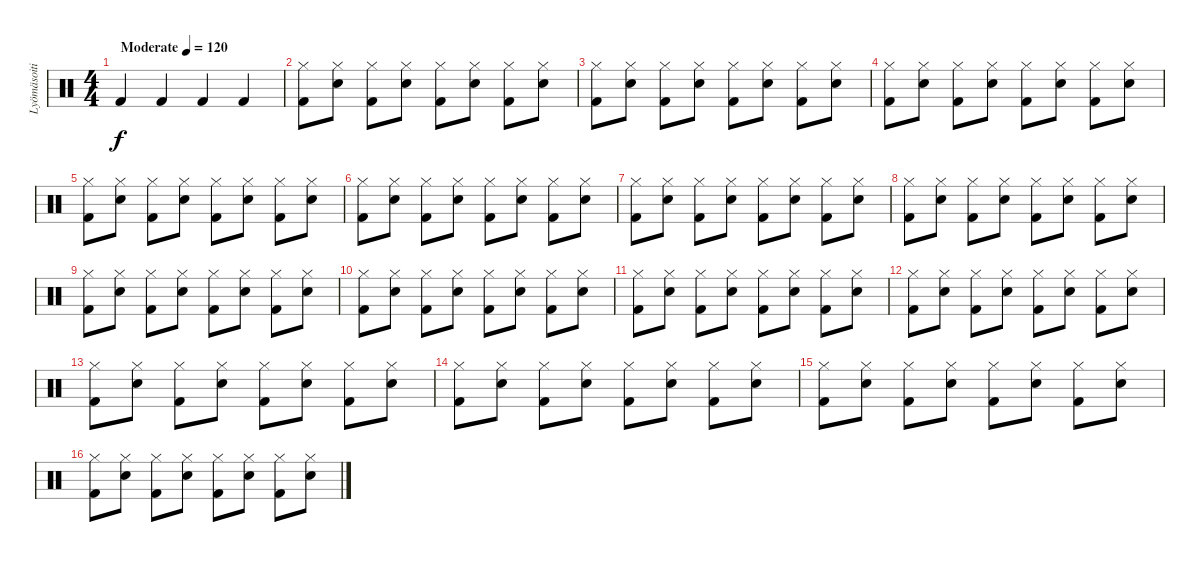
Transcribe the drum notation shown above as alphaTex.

\track ("Lyömäsoitin" "Lyömäsoiti") {instrument percussion}
\staff {score}
\articulation defaults
\ts (4 4)
\tempo (120 "Moderate")
\clef neutral
\ks c "Kick (hit) 2".4{dy f} "Kick (hit) 2".4 "Kick (hit) 2".4 "Kick (hit) 2".4
|
("Hi-Hat (closed)" "Kick (hit) 2").8 ("Hi-Hat (closed)" "Snare (hit) 2").8 ("Hi-Hat (closed)" "Kick (hit) 2").8 ("Hi-Hat (closed)" "Snare (hit) 2").8 ("Hi-Hat (closed)" "Kick (hit) 2").8 ("Hi-Hat (closed)" "Snare (hit) 2").8 ("Hi-Hat (closed)" "Kick (hit) 2").8 ("Hi-Hat (closed)" "Snare (hit) 2").8 |
("Hi-Hat (closed)" "Kick (hit) 2").8 ("Hi-Hat (closed)" "Snare (hit) 2").8 ("Hi-Hat (closed)" "Kick (hit) 2").8 ("Hi-Hat (closed)" "Snare (hit) 2").8 ("Hi-Hat (closed)" "Kick (hit) 2").8 ("Hi-Hat (closed)" "Snare (hit) 2").8 ("Hi-Hat (closed)" "Kick (hit) 2").8 ("Hi-Hat (closed)" "Snare (hit) 2").8 |
("Hi-Hat (closed)" "Kick (hit) 2").8 ("Hi-Hat (closed)" "Snare (hit) 2").8 ("Hi-Hat (closed)" "Kick (hit) 2").8 ("Hi-Hat (closed)" "Snare (hit) 2").8 ("Hi-Hat (closed)" "Kick (hit) 2").8 ("Hi-Hat (closed)" "Snare (hit) 2").8 ("Hi-Hat (closed)" "Kick (hit) 2").8 ("Hi-Hat (closed)" "Snare (hit) 2").8 |
("Hi-Hat (closed)" "Kick (hit) 2").8 ("Hi-Hat (closed)" "Snare (hit) 2").8 ("Hi-Hat (closed)" "Kick (hit) 2").8 ("Hi-Hat (closed)" "Snare (hit) 2").8 ("Hi-Hat (closed)" "Kick (hit) 2").8 ("Hi-Hat (closed)" "Snare (hit) 2").8 ("Hi-Hat (closed)" "Kick (hit) 2").8 ("Hi-Hat (closed)" "Snare (hit) 2").8 |
("Hi-Hat (closed)" "Kick (hit) 2").8 ("Hi-Hat (closed)" "Snare (hit) 2").8 ("Hi-Hat (closed)" "Kick (hit) 2").8 ("Hi-Hat (closed)" "Snare (hit) 2").8 ("Hi-Hat (closed)" "Kick (hit) 2").8 ("Hi-Hat (closed)" "Snare (hit) 2").8 ("Hi-Hat (closed)" "Kick (hit) 2").8 ("Hi-Hat (closed)" "Snare (hit) 2").8 |
("Hi-Hat (closed)" "Kick (hit) 2").8 ("Hi-Hat (closed)" "Snare (hit) 2").8 ("Hi-Hat (closed)" "Kick (hit) 2").8 ("Hi-Hat (closed)" "Snare (hit) 2").8 ("Hi-Hat (closed)" "Kick (hit) 2").8 ("Hi-Hat (closed)" "Snare (hit) 2").8 ("Hi-Hat (closed)" "Kick (hit) 2").8 ("Hi-Hat (closed)" "Snare (hit) 2").8 |
("Hi-Hat (closed)" "Kick (hit) 2").8 ("Hi-Hat (closed)" "Snare (hit) 2").8 ("Hi-Hat (closed)" "Kick (hit) 2").8 ("Hi-Hat (closed)" "Snare (hit) 2").8 ("Hi-Hat (closed)" "Kick (hit) 2").8 ("Hi-Hat (closed)" "Snare (hit) 2").8 ("Hi-Hat (closed)" "Kick (hit) 2").8 ("Hi-Hat (closed)" "Snare (hit) 2").8 |
("Hi-Hat (closed)" "Kick (hit) 2").8 ("Hi-Hat (closed)" "Snare (hit) 2").8 ("Hi-Hat (closed)" "Kick (hit) 2").8 ("Hi-Hat (closed)" "Snare (hit) 2").8 ("Hi-Hat (closed)" "Kick (hit) 2").8 ("Hi-Hat (closed)" "Snare (hit) 2").8 ("Hi-Hat (closed)" "Kick (hit) 2").8 ("Hi-Hat (closed)" "Snare (hit) 2").8 |
("Hi-Hat (closed)" "Kick (hit) 2").8 ("Hi-Hat (closed)" "Snare (hit) 2").8 ("Hi-Hat (closed)" "Kick (hit) 2").8 ("Hi-Hat (closed)" "Snare (hit) 2").8 ("Hi-Hat (closed)" "Kick (hit) 2").8 ("Hi-Hat (closed)" "Snare (hit) 2").8 ("Hi-Hat (closed)" "Kick (hit) 2").8 ("Hi-Hat (closed)" "Snare (hit) 2").8 |
("Hi-Hat (closed)" "Kick (hit) 2").8 ("Hi-Hat (closed)" "Snare (hit) 2").8 ("Hi-Hat (closed)" "Kick (hit) 2").8 ("Hi-Hat (closed)" "Snare (hit) 2").8 ("Hi-Hat (closed)" "Kick (hit) 2").8 ("Hi-Hat (closed)" "Snare (hit) 2").8 ("Hi-Hat (closed)" "Kick (hit) 2").8 ("Hi-Hat (closed)" "Snare (hit) 2").8 |
("Hi-Hat (closed)" "Kick (hit) 2").8 ("Hi-Hat (closed)" "Snare (hit) 2").8 ("Hi-Hat (closed)" "Kick (hit) 2").8 ("Hi-Hat (closed)" "Snare (hit) 2").8 ("Hi-Hat (closed)" "Kick (hit) 2").8 ("Hi-Hat (closed)" "Snare (hit) 2").8 ("Hi-Hat (closed)" "Kick (hit) 2").8 ("Hi-Hat (closed)" "Snare (hit) 2").8 |
("Hi-Hat (closed)" "Kick (hit) 2").8 ("Hi-Hat (closed)" "Snare (hit) 2").8 ("Hi-Hat (closed)" "Kick (hit) 2").8 ("Hi-Hat (closed)" "Snare (hit) 2").8 ("Hi-Hat (closed)" "Kick (hit) 2").8 ("Hi-Hat (closed)" "Snare (hit) 2").8 ("Hi-Hat (closed)" "Kick (hit) 2").8 ("Hi-Hat (closed)" "Snare (hit) 2").8 |
("Hi-Hat (closed)" "Kick (hit) 2").8 ("Hi-Hat (closed)" "Snare (hit) 2").8 ("Hi-Hat (closed)" "Kick (hit) 2").8 ("Hi-Hat (closed)" "Snare (hit) 2").8 ("Hi-Hat (closed)" "Kick (hit) 2").8 ("Hi-Hat (closed)" "Snare (hit) 2").8 ("Hi-Hat (closed)" "Kick (hit) 2").8 ("Hi-Hat (closed)" "Snare (hit) 2").8 |
("Hi-Hat (closed)" "Kick (hit) 2").8 ("Hi-Hat (closed)" "Snare (hit) 2").8 ("Hi-Hat (closed)" "Kick (hit) 2").8 ("Hi-Hat (closed)" "Snare (hit) 2").8 ("Hi-Hat (closed)" "Kick (hit) 2").8 ("Hi-Hat (closed)" "Snare (hit) 2").8 ("Hi-Hat (closed)" "Kick (hit) 2").8 ("Hi-Hat (closed)" "Snare (hit) 2").8 |
("Hi-Hat (closed)" "Kick (hit) 2").8 ("Hi-Hat (closed)" "Snare (hit) 2").8 ("Hi-Hat (closed)" "Kick (hit) 2").8 ("Hi-Hat (closed)" "Snare (hit) 2").8 ("Hi-Hat (closed)" "Kick (hit) 2").8 ("Hi-Hat (closed)" "Snare (hit) 2").8 ("Hi-Hat (closed)" "Kick (hit) 2").8 ("Hi-Hat (closed)" "Snare (hit) 2").8
